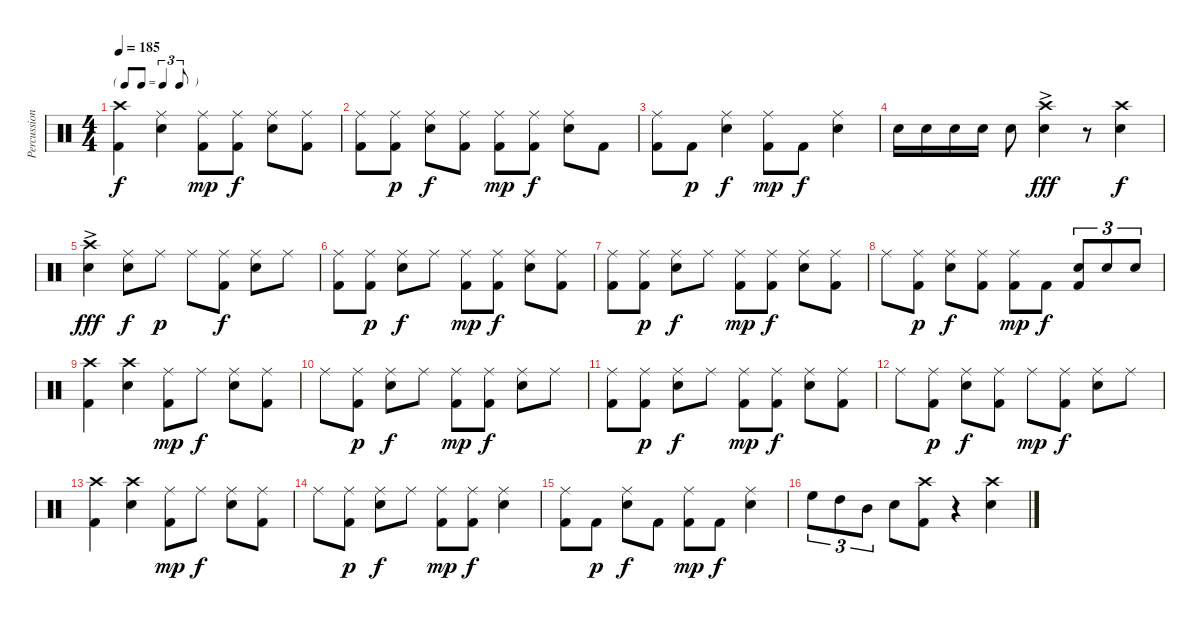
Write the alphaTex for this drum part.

\track ("Percussion" "Percussion") {instrument percussion}
\staff {score}
\articulation defaults
\ts (4 4)
\tf triplet8th
\tempo 185
\clef neutral
\ks c
("Kick (hit) 2" "Crash high (hit)").4{dy f} ("Snare (hit) 2" "Ride (middle)").4 ("Kick (hit) 2" "Ride (middle)").8{dy mp} ("Kick (hit) 2" "Ride (middle)").8{dy f} ("Snare (hit) 2" "Ride (middle)").8 ("Kick (hit) 2" "Ride (middle)").8 |
("Kick (hit) 2" "Ride (middle)").8 ("Kick (hit) 2" "Ride (middle)").8{dy p} ("Snare (hit) 2" "Ride (middle)").8{dy f} ("Kick (hit) 2" "Ride (middle)").8 ("Kick (hit) 2" "Ride (middle)").8{dy mp} ("Kick (hit) 2" "Ride (middle)").8{dy f} ("Snare (hit) 2" "Ride (middle)").8 "Kick (hit) 2".8 |
("Kick (hit) 2" "Ride (middle)").8 "Kick (hit) 2".8{dy p} ("Snare (hit) 2" "Ride (middle)").4{dy f} ("Kick (hit) 2" "Ride (middle)").8{dy mp} "Kick (hit) 2".8{dy f} ("Snare (hit) 2" "Ride (middle)").4 |
"Snare (hit) 2".16 "Snare (hit) 2".16 "Snare (hit) 2".16 "Snare (hit) 2".16 "Snare (hit) 2".8 ("Snare (hit) 2" "Crash high (hit)"{ac}).4{dy fff} r.8 ("Snare (hit) 2" "Crash high (hit)").4{dy f} |
("Snare (hit) 2" "Crash high (hit)"{ac}).4{dy fff} ("Snare (hit) 2" "Ride (middle)").8{dy f} "Ride (middle)".8{dy p} "Ride (middle)".8 ("Kick (hit) 2" "Ride (middle)").8{dy f} ("Snare (hit) 2" "Ride (middle)").8 "Ride (middle)".8 |
("Kick (hit) 2" "Ride (middle)").8 ("Kick (hit) 2" "Ride (middle)").8{dy p} ("Snare (hit) 2" "Ride (middle)").8{dy f} "Ride (middle)".8 ("Kick (hit) 2" "Ride (middle)").8{dy mp} ("Kick (hit) 2" "Ride (middle)").8{dy f} ("Snare (hit) 2" "Ride (middle)").8 ("Kick (hit) 2" "Ride (middle)").8 |
("Kick (hit) 2" "Ride (middle)").8 ("Kick (hit) 2" "Ride (middle)").8{dy p} ("Snare (hit) 2" "Ride (middle)").8{dy f} "Ride (middle)".8 ("Kick (hit) 2" "Ride (middle)").8{dy mp} ("Kick (hit) 2" "Ride (middle)").8{dy f} ("Snare (hit) 2" "Ride (middle)").8 ("Kick (hit) 2" "Ride (middle)").8 |
"Ride (middle)".8 ("Kick (hit) 2" "Ride (middle)").8{dy p} ("Snare (hit) 2" "Ride (middle)").8{dy f} ("Kick (hit) 2" "Ride (middle)").8 ("Kick (hit) 2" "Ride (middle)").8{dy mp} "Kick (hit) 2".8{dy f} ("Kick (hit) 2" "Snare (hit) 2").8{tu (3 2)} "Snare (hit) 2".8{tu (3 2)} "Snare (hit) 2".8{tu (3 2)} |
("Kick (hit) 2" "Crash high (hit)").4 ("Snare (hit) 2" "Crash high (hit)").4 ("Kick (hit) 2" "Ride (middle)").8{dy mp} "Ride (middle)".8{dy f} ("Snare (hit) 2" "Ride (middle)").8 ("Kick (hit) 2" "Ride (middle)").8 |
"Ride (middle)".8 ("Kick (hit) 2" "Ride (middle)").8{dy p} ("Snare (hit) 2" "Ride (middle)").8{dy f} "Ride (middle)".8 ("Kick (hit) 2" "Ride (middle)").8{dy mp} ("Kick (hit) 2" "Ride (middle)").8{dy f} ("Snare (hit) 2" "Ride (middle)").8 "Ride (middle)".8 |
("Kick (hit) 2" "Ride (middle)").8 ("Kick (hit) 2" "Ride (middle)").8{dy p} ("Snare (hit) 2" "Ride (middle)").8{dy f} "Ride (middle)".8 ("Kick (hit) 2" "Ride (middle)").8{dy mp} ("Kick (hit) 2" "Ride (middle)").8{dy f} ("Snare (hit) 2" "Ride (middle)").8 ("Kick (hit) 2" "Ride (middle)").8 |
"Ride (middle)".8 ("Kick (hit) 2" "Ride (middle)").8{dy p} ("Snare (hit) 2" "Ride (middle)").8{dy f} ("Kick (hit) 2" "Ride (middle)").8 "Ride (middle)".8{dy mp} ("Kick (hit) 2" "Ride (middle)").8{dy f} ("Snare (hit) 2" "Ride (middle)").8 "Ride (middle)".8 |
("Kick (hit) 2" "Crash high (hit)").4 ("Snare (hit) 2" "Crash high (hit)").4 ("Kick (hit) 2" "Ride (middle)").8{dy mp} "Ride (middle)".8{dy f} ("Snare (hit) 2" "Ride (middle)").8 ("Kick (hit) 2" "Ride (middle)").8 |
"Ride (middle)".8 ("Kick (hit) 2" "Ride (middle)").8{dy p} ("Snare (hit) 2" "Ride (middle)").8{dy f} "Ride (middle)".8 ("Kick (hit) 2" "Ride (middle)").8{dy mp} ("Kick (hit) 2" "Ride (middle)").8{dy f} ("Snare (hit) 2" "Ride (middle)").4 |
("Kick (hit) 2" "Ride (middle)").8 "Kick (hit) 2".8{dy p} ("Snare (hit) 2" "Ride (middle)").8{dy f} "Kick (hit) 2".8 ("Kick (hit) 2" "Ride (middle)").8{dy mp} "Kick (hit) 2".8{dy f} ("Snare (hit) 2" "Ride (middle)").4 |
"High Floor Tom (hit)".8{tu (3 2)} "High Tom (hit)".8{tu (3 2)} "Mid Tom (hit)".8{tu (3 2)} "Snare (hit) 2".8 ("Kick (hit) 2" "Crash high (hit)").8 r.4 ("Snare (hit) 2" "Crash high (hit)").4
